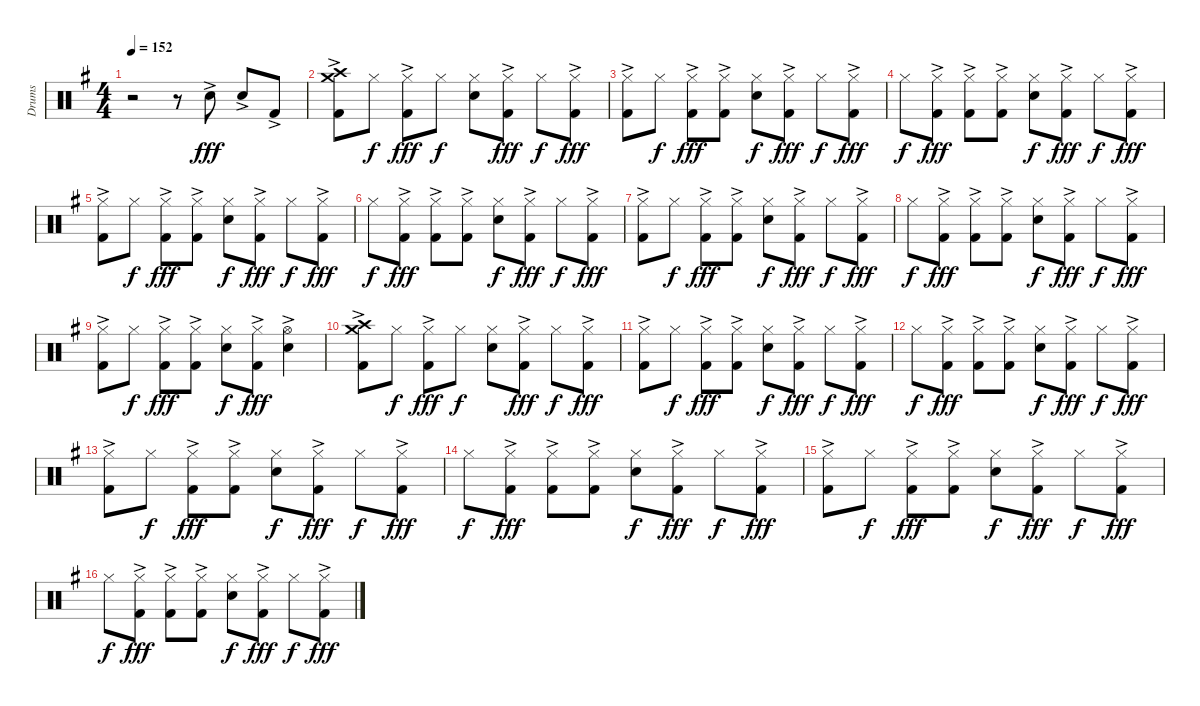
\track ("Drums" "Drums") {instrument percussion}
\staff {score}
\articulation defaults
\ts (4 4)
\tempo 152
\clef neutral
\ks eminor
r.2{dy fff} r.8 "Snare (hit) 2"{ac}.8 "Snare (hit) 2"{ac}.8 "Kick (hit) 2"{ac}.8 |
("Crash high (hit)" "Crash medium (hit)" "Kick (hit) 2"{ac}).8 "Hi-Hat (closed)".8{dy f} ("Hi-Hat (closed)" "Kick (hit) 2"{ac}).8{dy fff} "Hi-Hat (closed)".8{dy f} ("Hi-Hat (closed)" "Snare (hit) 2").8 ("Hi-Hat (closed)" "Kick (hit) 2"{ac}).8{dy fff} "Hi-Hat (closed)".8{dy f} ("Hi-Hat (closed)" "Kick (hit) 2"{ac}).8{dy fff} |
("Hi-Hat (closed)" "Kick (hit) 2"{ac}).8 "Hi-Hat (closed)".8{dy f} ("Hi-Hat (closed)" "Kick (hit) 2"{ac}).8{dy fff} ("Hi-Hat (closed)" "Kick (hit) 2"{ac}).8 ("Hi-Hat (closed)" "Snare (hit) 2").8{dy f} ("Hi-Hat (closed)" "Kick (hit) 2"{ac}).8{dy fff} "Hi-Hat (closed)".8{dy f} ("Hi-Hat (closed)" "Kick (hit) 2"{ac}).8{dy fff} |
"Hi-Hat (closed)".8{dy f} ("Hi-Hat (closed)" "Kick (hit) 2"{ac}).8{dy fff} ("Hi-Hat (closed)" "Kick (hit) 2"{ac}).8 ("Hi-Hat (closed)" "Kick (hit) 2"{ac}).8 ("Hi-Hat (closed)" "Snare (hit) 2").8{dy f} ("Hi-Hat (closed)" "Kick (hit) 2"{ac}).8{dy fff} "Hi-Hat (closed)".8{dy f} ("Hi-Hat (closed)" "Kick (hit) 2"{ac}).8{dy fff} |
("Hi-Hat (closed)" "Kick (hit) 2"{ac}).8 "Hi-Hat (closed)".8{dy f} ("Hi-Hat (closed)" "Kick (hit) 2"{ac}).8{dy fff} ("Hi-Hat (closed)" "Kick (hit) 2"{ac}).8 ("Hi-Hat (closed)" "Snare (hit) 2").8{dy f} ("Hi-Hat (closed)" "Kick (hit) 2"{ac}).8{dy fff} "Hi-Hat (closed)".8{dy f} ("Hi-Hat (closed)" "Kick (hit) 2"{ac}).8{dy fff} |
"Hi-Hat (closed)".8{dy f} ("Hi-Hat (closed)" "Kick (hit) 2"{ac}).8{dy fff} ("Hi-Hat (closed)" "Kick (hit) 2"{ac}).8 ("Hi-Hat (closed)" "Kick (hit) 2"{ac}).8 ("Hi-Hat (closed)" "Snare (hit) 2").8{dy f} ("Hi-Hat (closed)" "Kick (hit) 2"{ac}).8{dy fff} "Hi-Hat (closed)".8{dy f} ("Hi-Hat (closed)" "Kick (hit) 2"{ac}).8{dy fff} |
("Hi-Hat (closed)" "Kick (hit) 2"{ac}).8 "Hi-Hat (closed)".8{dy f} ("Hi-Hat (closed)" "Kick (hit) 2"{ac}).8{dy fff} ("Hi-Hat (closed)" "Kick (hit) 2"{ac}).8 ("Hi-Hat (closed)" "Snare (hit) 2").8{dy f} ("Hi-Hat (closed)" "Kick (hit) 2"{ac}).8{dy fff} "Hi-Hat (closed)".8{dy f} ("Hi-Hat (closed)" "Kick (hit) 2"{ac}).8{dy fff} |
"Hi-Hat (closed)".8{dy f} ("Hi-Hat (closed)" "Kick (hit) 2"{ac}).8{dy fff} ("Hi-Hat (closed)" "Kick (hit) 2"{ac}).8 ("Hi-Hat (closed)" "Kick (hit) 2"{ac}).8 ("Hi-Hat (closed)" "Snare (hit) 2").8{dy f} ("Hi-Hat (closed)" "Kick (hit) 2"{ac}).8{dy fff} "Hi-Hat (closed)".8{dy f} ("Hi-Hat (closed)" "Kick (hit) 2"{ac}).8{dy fff} |
("Hi-Hat (closed)" "Kick (hit) 2"{ac}).8 "Hi-Hat (closed)".8{dy f} ("Hi-Hat (closed)" "Kick (hit) 2"{ac}).8{dy fff} ("Hi-Hat (closed)" "Kick (hit) 2"{ac}).8 ("Hi-Hat (closed)" "Snare (hit) 2").8{dy f} ("Hi-Hat (closed)" "Kick (hit) 2"{ac}).8{dy fff} ("Hi-Hat (open)"{ac} "Snare (hit) 2").4 |
("Crash high (hit)" "Crash medium (hit)" "Kick (hit) 2"{ac}).8 "Hi-Hat (closed)".8{dy f} ("Hi-Hat (closed)" "Kick (hit) 2"{ac}).8{dy fff} "Hi-Hat (closed)".8{dy f} ("Hi-Hat (closed)" "Snare (hit) 2").8 ("Hi-Hat (closed)" "Kick (hit) 2"{ac}).8{dy fff} "Hi-Hat (closed)".8{dy f} ("Hi-Hat (closed)" "Kick (hit) 2"{ac}).8{dy fff} |
("Hi-Hat (closed)" "Kick (hit) 2"{ac}).8 "Hi-Hat (closed)".8{dy f} ("Hi-Hat (closed)" "Kick (hit) 2"{ac}).8{dy fff} ("Hi-Hat (closed)" "Kick (hit) 2"{ac}).8 ("Hi-Hat (closed)" "Snare (hit) 2").8{dy f} ("Hi-Hat (closed)" "Kick (hit) 2"{ac}).8{dy fff} "Hi-Hat (closed)".8{dy f} ("Hi-Hat (closed)" "Kick (hit) 2"{ac}).8{dy fff} |
"Hi-Hat (closed)".8{dy f} ("Hi-Hat (closed)" "Kick (hit) 2"{ac}).8{dy fff} ("Hi-Hat (closed)" "Kick (hit) 2"{ac}).8 ("Hi-Hat (closed)" "Kick (hit) 2"{ac}).8 ("Hi-Hat (closed)" "Snare (hit) 2").8{dy f} ("Hi-Hat (closed)" "Kick (hit) 2"{ac}).8{dy fff} "Hi-Hat (closed)".8{dy f} ("Hi-Hat (closed)" "Kick (hit) 2"{ac}).8{dy fff} |
("Hi-Hat (closed)" "Kick (hit) 2"{ac}).8 "Hi-Hat (closed)".8{dy f} ("Hi-Hat (closed)" "Kick (hit) 2"{ac}).8{dy fff} ("Hi-Hat (closed)" "Kick (hit) 2"{ac}).8 ("Hi-Hat (closed)" "Snare (hit) 2").8{dy f} ("Hi-Hat (closed)" "Kick (hit) 2"{ac}).8{dy fff} "Hi-Hat (closed)".8{dy f} ("Hi-Hat (closed)" "Kick (hit) 2"{ac}).8{dy fff} |
"Hi-Hat (closed)".8{dy f} ("Hi-Hat (closed)" "Kick (hit) 2"{ac}).8{dy fff} ("Hi-Hat (closed)" "Kick (hit) 2"{ac}).8 ("Hi-Hat (closed)" "Kick (hit) 2"{ac}).8 ("Hi-Hat (closed)" "Snare (hit) 2").8{dy f} ("Hi-Hat (closed)" "Kick (hit) 2"{ac}).8{dy fff} "Hi-Hat (closed)".8{dy f} ("Hi-Hat (closed)" "Kick (hit) 2"{ac}).8{dy fff} |
("Hi-Hat (closed)" "Kick (hit) 2"{ac}).8 "Hi-Hat (closed)".8{dy f} ("Hi-Hat (closed)" "Kick (hit) 2"{ac}).8{dy fff} ("Hi-Hat (closed)" "Kick (hit) 2"{ac}).8 ("Hi-Hat (closed)" "Snare (hit) 2").8{dy f} ("Hi-Hat (closed)" "Kick (hit) 2"{ac}).8{dy fff} "Hi-Hat (closed)".8{dy f} ("Hi-Hat (closed)" "Kick (hit) 2"{ac}).8{dy fff} |
"Hi-Hat (closed)".8{dy f} ("Hi-Hat (closed)" "Kick (hit) 2"{ac}).8{dy fff} ("Hi-Hat (closed)" "Kick (hit) 2"{ac}).8 ("Hi-Hat (closed)" "Kick (hit) 2"{ac}).8 ("Hi-Hat (closed)" "Snare (hit) 2").8{dy f} ("Hi-Hat (closed)" "Kick (hit) 2"{ac}).8{dy fff} "Hi-Hat (closed)".8{dy f} ("Hi-Hat (closed)" "Kick (hit) 2"{ac}).8{dy fff}
